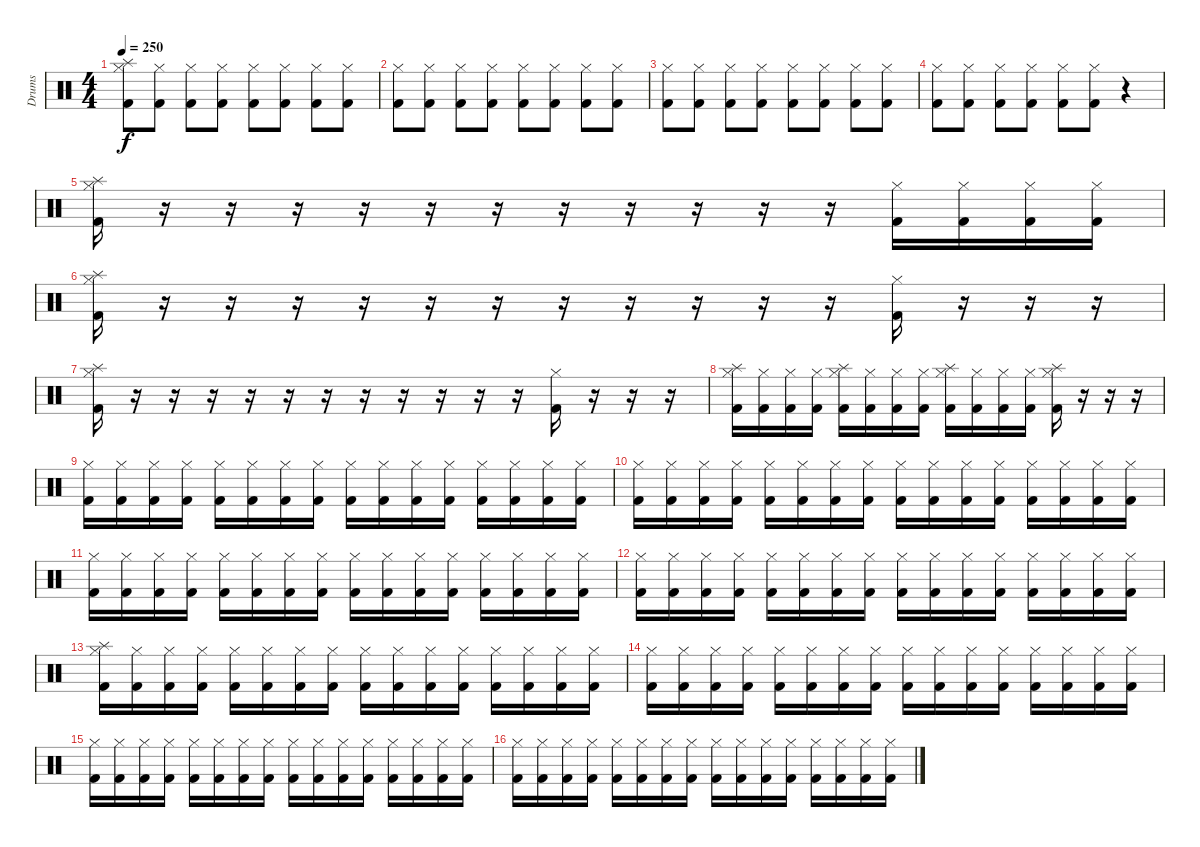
\track ("Drums" "Drums") {instrument percussion}
\staff {score}
\articulation defaults
\ts (4 4)
\tempo 250
\clef neutral
\ks c
("Splash (hit)" "Kick (hit) 2" "Hi-Hat (closed)").8{dy f} ("Kick (hit) 2" "Hi-Hat (closed)").8 ("Kick (hit) 2" "Hi-Hat (closed)").8 ("Kick (hit) 2" "Hi-Hat (closed)").8 ("Kick (hit) 2" "Hi-Hat (closed)").8 ("Kick (hit) 2" "Hi-Hat (closed)").8 ("Kick (hit) 2" "Hi-Hat (closed)").8 ("Kick (hit) 2" "Hi-Hat (closed)").8 |
("Kick (hit) 2" "Hi-Hat (closed)").8 ("Kick (hit) 2" "Hi-Hat (closed)").8 ("Kick (hit) 2" "Hi-Hat (closed)").8 ("Kick (hit) 2" "Hi-Hat (closed)").8 ("Kick (hit) 2" "Hi-Hat (closed)").8 ("Kick (hit) 2" "Hi-Hat (closed)").8 ("Kick (hit) 2" "Hi-Hat (closed)").8 ("Kick (hit) 2" "Hi-Hat (closed)").8 |
("Kick (hit) 2" "Hi-Hat (closed)").8 ("Kick (hit) 2" "Hi-Hat (closed)").8 ("Kick (hit) 2" "Hi-Hat (closed)").8 ("Kick (hit) 2" "Hi-Hat (closed)").8 ("Kick (hit) 2" "Hi-Hat (closed)").8 ("Kick (hit) 2" "Hi-Hat (closed)").8 ("Kick (hit) 2" "Hi-Hat (closed)").8 ("Kick (hit) 2" "Hi-Hat (closed)").8 |
("Kick (hit) 2" "Hi-Hat (closed)").8 ("Kick (hit) 2" "Hi-Hat (closed)").8 ("Kick (hit) 2" "Hi-Hat (closed)").8 ("Kick (hit) 2" "Hi-Hat (closed)").8 ("Kick (hit) 2" "Hi-Hat (closed)").8 ("Kick (hit) 2" "Hi-Hat (closed)").8 r.4 |
("Splash (hit)" "Kick (hit) 2" "Hi-Hat (closed)").16 r.16 r.16 r.16 r.16 r.16 r.16 r.16 r.16 r.16 r.16 r.16 ("Kick (hit) 2" "Hi-Hat (closed)").16 ("Kick (hit) 2" "Hi-Hat (closed)").16 ("Kick (hit) 2" "Hi-Hat (closed)").16 ("Kick (hit) 2" "Hi-Hat (closed)").16 |
("Splash (hit)" "Kick (hit) 2" "Hi-Hat (closed)").16 r.16 r.16 r.16 r.16 r.16 r.16 r.16 r.16 r.16 r.16 r.16 ("Kick (hit) 2" "Hi-Hat (closed)").16 r.16 r.16 r.16 |
("Splash (hit)" "Kick (hit) 2" "Hi-Hat (closed)").16 r.16 r.16 r.16 r.16 r.16 r.16 r.16 r.16 r.16 r.16 r.16 ("Kick (hit) 2" "Hi-Hat (closed)").16 r.16 r.16 r.16 |
("Splash (hit)" "Kick (hit) 2" "Hi-Hat (closed)").16 ("Kick (hit) 2" "Hi-Hat (closed)").16 ("Kick (hit) 2" "Hi-Hat (closed)").16 ("Kick (hit) 2" "Hi-Hat (closed)").16 ("Splash (hit)" "Kick (hit) 2" "Hi-Hat (closed)").16 ("Kick (hit) 2" "Hi-Hat (closed)").16 ("Kick (hit) 2" "Hi-Hat (closed)").16 ("Kick (hit) 2" "Hi-Hat (closed)").16 ("Splash (hit)" "Kick (hit) 2" "Hi-Hat (closed)").16 ("Kick (hit) 2" "Hi-Hat (closed)").16 ("Kick (hit) 2" "Hi-Hat (closed)").16 ("Kick (hit) 2" "Hi-Hat (closed)").16 ("Splash (hit)" "Kick (hit) 2" "Hi-Hat (closed)").16 r.16 r.16 r.16 |
("Kick (hit) 2" "Hi-Hat (closed)").16 ("Kick (hit) 2" "Hi-Hat (closed)").16 ("Kick (hit) 2" "Hi-Hat (closed)").16 ("Kick (hit) 2" "Hi-Hat (closed)").16 ("Kick (hit) 2" "Hi-Hat (closed)").16 ("Kick (hit) 2" "Hi-Hat (closed)").16 ("Kick (hit) 2" "Hi-Hat (closed)").16 ("Kick (hit) 2" "Hi-Hat (closed)").16 ("Kick (hit) 2" "Hi-Hat (closed)").16 ("Kick (hit) 2" "Hi-Hat (closed)").16 ("Kick (hit) 2" "Hi-Hat (closed)").16 ("Kick (hit) 2" "Hi-Hat (closed)").16 ("Kick (hit) 2" "Hi-Hat (closed)").16 ("Kick (hit) 2" "Hi-Hat (closed)").16 ("Kick (hit) 2" "Hi-Hat (closed)").16 ("Kick (hit) 2" "Hi-Hat (closed)").16 |
("Kick (hit) 2" "Hi-Hat (closed)").16 ("Kick (hit) 2" "Hi-Hat (closed)").16 ("Kick (hit) 2" "Hi-Hat (closed)").16 ("Kick (hit) 2" "Hi-Hat (closed)").16 ("Kick (hit) 2" "Hi-Hat (closed)").16 ("Kick (hit) 2" "Hi-Hat (closed)").16 ("Kick (hit) 2" "Hi-Hat (closed)").16 ("Kick (hit) 2" "Hi-Hat (closed)").16 ("Kick (hit) 2" "Hi-Hat (closed)").16 ("Kick (hit) 2" "Hi-Hat (closed)").16 ("Kick (hit) 2" "Hi-Hat (closed)").16 ("Kick (hit) 2" "Hi-Hat (closed)").16 ("Kick (hit) 2" "Hi-Hat (closed)").16 ("Kick (hit) 2" "Hi-Hat (closed)").16 ("Kick (hit) 2" "Hi-Hat (closed)").16 ("Kick (hit) 2" "Hi-Hat (closed)").16 |
("Kick (hit) 2" "Hi-Hat (closed)").16 ("Kick (hit) 2" "Hi-Hat (closed)").16 ("Kick (hit) 2" "Hi-Hat (closed)").16 ("Kick (hit) 2" "Hi-Hat (closed)").16 ("Kick (hit) 2" "Hi-Hat (closed)").16 ("Kick (hit) 2" "Hi-Hat (closed)").16 ("Kick (hit) 2" "Hi-Hat (closed)").16 ("Kick (hit) 2" "Hi-Hat (closed)").16 ("Kick (hit) 2" "Hi-Hat (closed)").16 ("Kick (hit) 2" "Hi-Hat (closed)").16 ("Kick (hit) 2" "Hi-Hat (closed)").16 ("Kick (hit) 2" "Hi-Hat (closed)").16 ("Kick (hit) 2" "Hi-Hat (closed)").16 ("Kick (hit) 2" "Hi-Hat (closed)").16 ("Kick (hit) 2" "Hi-Hat (closed)").16 ("Kick (hit) 2" "Hi-Hat (closed)").16 |
("Kick (hit) 2" "Hi-Hat (closed)").16 ("Kick (hit) 2" "Hi-Hat (closed)").16 ("Kick (hit) 2" "Hi-Hat (closed)").16 ("Kick (hit) 2" "Hi-Hat (closed)").16 ("Kick (hit) 2" "Hi-Hat (closed)").16 ("Kick (hit) 2" "Hi-Hat (closed)").16 ("Kick (hit) 2" "Hi-Hat (closed)").16 ("Kick (hit) 2" "Hi-Hat (closed)").16 ("Kick (hit) 2" "Hi-Hat (closed)").16 ("Kick (hit) 2" "Hi-Hat (closed)").16 ("Kick (hit) 2" "Hi-Hat (closed)").16 ("Kick (hit) 2" "Hi-Hat (closed)").16 ("Kick (hit) 2" "Hi-Hat (closed)").16 ("Kick (hit) 2" "Hi-Hat (closed)").16 ("Kick (hit) 2" "Hi-Hat (closed)").16 ("Kick (hit) 2" "Hi-Hat (closed)").16 |
("Splash (hit)" "Kick (hit) 2" "Hi-Hat (closed)").16 ("Kick (hit) 2" "Hi-Hat (closed)").16 ("Kick (hit) 2" "Hi-Hat (closed)").16 ("Kick (hit) 2" "Hi-Hat (closed)").16 ("Kick (hit) 2" "Hi-Hat (closed)").16 ("Kick (hit) 2" "Hi-Hat (closed)").16 ("Kick (hit) 2" "Hi-Hat (closed)").16 ("Kick (hit) 2" "Hi-Hat (closed)").16 ("Kick (hit) 2" "Hi-Hat (closed)").16 ("Kick (hit) 2" "Hi-Hat (closed)").16 ("Kick (hit) 2" "Hi-Hat (closed)").16 ("Kick (hit) 2" "Hi-Hat (closed)").16 ("Kick (hit) 2" "Hi-Hat (closed)").16 ("Kick (hit) 2" "Hi-Hat (closed)").16 ("Kick (hit) 2" "Hi-Hat (closed)").16 ("Kick (hit) 2" "Hi-Hat (closed)").16 |
("Kick (hit) 2" "Hi-Hat (closed)").16 ("Kick (hit) 2" "Hi-Hat (closed)").16 ("Kick (hit) 2" "Hi-Hat (closed)").16 ("Kick (hit) 2" "Hi-Hat (closed)").16 ("Kick (hit) 2" "Hi-Hat (closed)").16 ("Kick (hit) 2" "Hi-Hat (closed)").16 ("Kick (hit) 2" "Hi-Hat (closed)").16 ("Kick (hit) 2" "Hi-Hat (closed)").16 ("Kick (hit) 2" "Hi-Hat (closed)").16 ("Kick (hit) 2" "Hi-Hat (closed)").16 ("Kick (hit) 2" "Hi-Hat (closed)").16 ("Kick (hit) 2" "Hi-Hat (closed)").16 ("Kick (hit) 2" "Hi-Hat (closed)").16 ("Kick (hit) 2" "Hi-Hat (closed)").16 ("Kick (hit) 2" "Hi-Hat (closed)").16 ("Kick (hit) 2" "Hi-Hat (closed)").16 |
("Kick (hit) 2" "Hi-Hat (closed)").16 ("Kick (hit) 2" "Hi-Hat (closed)").16 ("Kick (hit) 2" "Hi-Hat (closed)").16 ("Kick (hit) 2" "Hi-Hat (closed)").16 ("Kick (hit) 2" "Hi-Hat (closed)").16 ("Kick (hit) 2" "Hi-Hat (closed)").16 ("Kick (hit) 2" "Hi-Hat (closed)").16 ("Kick (hit) 2" "Hi-Hat (closed)").16 ("Kick (hit) 2" "Hi-Hat (closed)").16 ("Kick (hit) 2" "Hi-Hat (closed)").16 ("Kick (hit) 2" "Hi-Hat (closed)").16 ("Kick (hit) 2" "Hi-Hat (closed)").16 ("Kick (hit) 2" "Hi-Hat (closed)").16 ("Kick (hit) 2" "Hi-Hat (closed)").16 ("Kick (hit) 2" "Hi-Hat (closed)").16 ("Kick (hit) 2" "Hi-Hat (closed)").16 |
("Kick (hit) 2" "Hi-Hat (closed)").16 ("Kick (hit) 2" "Hi-Hat (closed)").16 ("Kick (hit) 2" "Hi-Hat (closed)").16 ("Kick (hit) 2" "Hi-Hat (closed)").16 ("Kick (hit) 2" "Hi-Hat (closed)").16 ("Kick (hit) 2" "Hi-Hat (closed)").16 ("Kick (hit) 2" "Hi-Hat (closed)").16 ("Kick (hit) 2" "Hi-Hat (closed)").16 ("Kick (hit) 2" "Hi-Hat (closed)").16 ("Kick (hit) 2" "Hi-Hat (closed)").16 ("Kick (hit) 2" "Hi-Hat (closed)").16 ("Kick (hit) 2" "Hi-Hat (closed)").16 ("Kick (hit) 2" "Hi-Hat (closed)").16 ("Kick (hit) 2" "Hi-Hat (closed)").16 ("Kick (hit) 2" "Hi-Hat (closed)").16 ("Kick (hit) 2" "Hi-Hat (closed)").16
